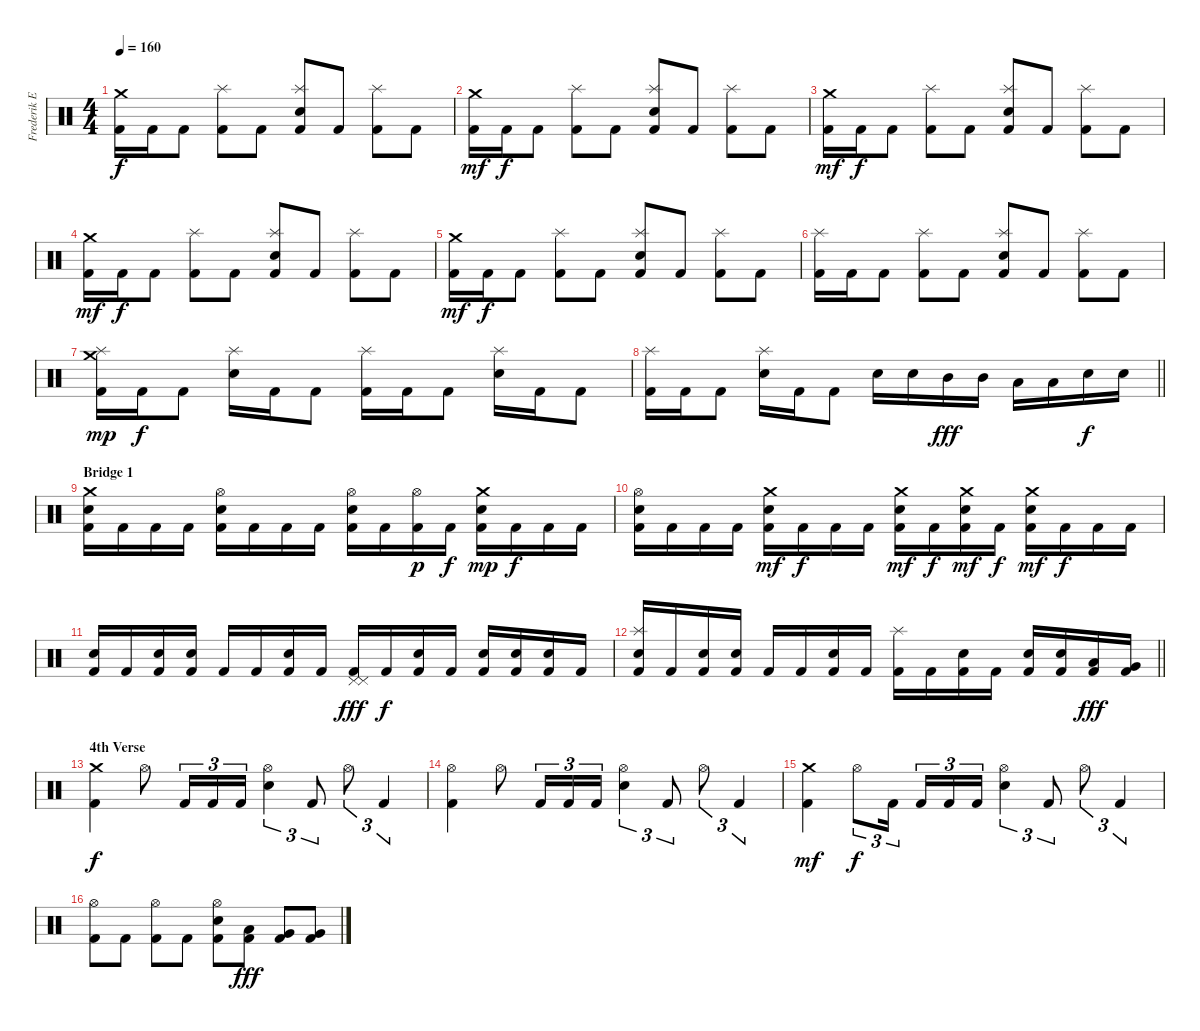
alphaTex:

\track ("Frederik Ehmke" "Frederik E") {instrument percussion}
\staff {score}
\articulation defaults
\ts (4 4)
\tempo 160
\clef neutral
\ks c
("Crash medium (hit)" "Kick (hit) 2").16{dy f} "Kick (hit) 2".16 "Kick (hit) 2".8 ("Splash (hit)" "Kick (hit) 2").8 "Kick (hit) 2".8 ("Splash (hit)" "Electric Snare (hit)" "Kick (hit) 2").8 "Kick (hit) 2".8 ("Splash (hit)" "Kick (hit) 2").8 "Kick (hit) 2".8 |
("Crash medium (hit)" "Kick (hit) 2").16{dy mf} "Kick (hit) 2".16{dy f} "Kick (hit) 2".8 ("Splash (hit)" "Kick (hit) 2").8 "Kick (hit) 2".8 ("Splash (hit)" "Electric Snare (hit)" "Kick (hit) 2").8 "Kick (hit) 2".8 ("Splash (hit)" "Kick (hit) 2").8 "Kick (hit) 2".8 |
("Crash medium (hit)" "Kick (hit) 2").16{dy mf} "Kick (hit) 2".16{dy f} "Kick (hit) 2".8 ("Splash (hit)" "Kick (hit) 2").8 "Kick (hit) 2".8 ("Splash (hit)" "Electric Snare (hit)" "Kick (hit) 2").8 "Kick (hit) 2".8 ("Splash (hit)" "Kick (hit) 2").8 "Kick (hit) 2".8 |
("Crash medium (hit)" "Kick (hit) 2").16{dy mf} "Kick (hit) 2".16{dy f} "Kick (hit) 2".8 ("Splash (hit)" "Kick (hit) 2").8 "Kick (hit) 2".8 ("Splash (hit)" "Electric Snare (hit)" "Kick (hit) 2").8 "Kick (hit) 2".8 ("Splash (hit)" "Kick (hit) 2").8 "Kick (hit) 2".8 |
("Crash medium (hit)" "Kick (hit) 2").16{dy mf} "Kick (hit) 2".16{dy f} "Kick (hit) 2".8 ("Splash (hit)" "Kick (hit) 2").8 "Kick (hit) 2".8 ("Splash (hit)" "Electric Snare (hit)" "Kick (hit) 2").8 "Kick (hit) 2".8 ("Splash (hit)" "Kick (hit) 2").8 "Kick (hit) 2".8 |
("Splash (hit)" "Kick (hit) 2").16 "Kick (hit) 2".16 "Kick (hit) 2".8 ("Splash (hit)" "Kick (hit) 2").8 "Kick (hit) 2".8 ("Splash (hit)" "Electric Snare (hit)" "Kick (hit) 2").8 "Kick (hit) 2".8 ("Splash (hit)" "Kick (hit) 2").8 "Kick (hit) 2".8 |
("Splash (hit)" "Crash medium (hit)" "Kick (hit) 2").16{dy mp} "Kick (hit) 2".16{dy f} "Kick (hit) 2".8 ("Splash (hit)" "Electric Snare (hit)").16 "Kick (hit) 2".16 "Kick (hit) 2".8 ("Splash (hit)" "Kick (hit) 2").16 "Kick (hit) 2".16 "Kick (hit) 2".8 ("Splash (hit)" "Electric Snare (hit)").16 "Kick (hit) 2".16 "Kick (hit) 2".8 |
\barLineRight lightlight
("Splash (hit)" "Kick (hit) 2").16 "Kick (hit) 2".16 "Kick (hit) 2".8 ("Splash (hit)" "Electric Snare (hit)").16 "Kick (hit) 2".16 "Kick (hit) 2".8 "Electric Snare (hit)".16 "Electric Snare (hit)".16 "Mid Tom (hit)".16{dy fff} "Mid Tom (hit)".16 "Low Tom (hit)".16 "Low Tom (hit)".16 "Electric Snare (hit)".16{dy f} "Electric Snare (hit)".16 |
\section ("" "Bridge 1")
("Crash medium (hit)" "Electric Snare (hit)" "Kick (hit) 2").16 "Kick (hit) 2".16 "Kick (hit) 2".16 "Kick (hit) 2".16 ("Hi-Hat (open)" "Electric Snare (hit)" "Kick (hit) 2").16 "Kick (hit) 2".16 "Kick (hit) 2".16 "Kick (hit) 2".16 ("Hi-Hat (open)" "Electric Snare (hit)" "Kick (hit) 2").16 "Kick (hit) 2".16 ("Hi-Hat (open)" "Kick (hit) 2").16{dy p} "Kick (hit) 2".16{dy f} ("Crash medium (hit)" "Electric Snare (hit)" "Kick (hit) 2").16{dy mp} "Kick (hit) 2".16{dy f} "Kick (hit) 2".16 "Kick (hit) 2".16 |
("Hi-Hat (open)" "Electric Snare (hit)" "Kick (hit) 2").16 "Kick (hit) 2".16 "Kick (hit) 2".16 "Kick (hit) 2".16 ("Crash medium (hit)" "Electric Snare (hit)" "Kick (hit) 2").16{dy mf} "Kick (hit) 2".16{dy f} "Kick (hit) 2".16 "Kick (hit) 2".16 ("Crash medium (hit)" "Electric Snare (hit)" "Kick (hit) 2").16{dy mf} "Kick (hit) 2".16{dy f} ("Crash medium (hit)" "Electric Snare (hit)" "Kick (hit) 2").16{dy mf} "Kick (hit) 2".16{dy f} ("Crash medium (hit)" "Electric Snare (hit)" "Kick (hit) 2").16{dy mf} "Kick (hit) 2".16{dy f} "Kick (hit) 2".16 "Kick (hit) 2".16 |
("Electric Snare (hit)" "Kick (hit) 2").16 "Kick (hit) 2".16 ("Electric Snare (hit)" "Kick (hit) 2").16 ("Electric Snare (hit)" "Kick (hit) 2").16 "Kick (hit) 2".16 "Kick (hit) 2".16 ("Electric Snare (hit)" "Kick (hit) 2").16 "Kick (hit) 2".16 ("Pedal Hi-Hat (hit)" "Pedal Hi-Hat (hit)" "Kick (hit) 2").16{dy fff} "Kick (hit) 2".16{dy f} ("Electric Snare (hit)" "Kick (hit) 2").16 "Kick (hit) 2".16 ("Electric Snare (hit)" "Kick (hit) 2").16 ("Electric Snare (hit)" "Kick (hit) 2").16 ("Electric Snare (hit)" "Kick (hit) 2").16 "Kick (hit) 2".16 |
\barLineRight lightlight
("Splash (hit)" "Electric Snare (hit)" "Kick (hit) 2").16 "Kick (hit) 2".16 ("Electric Snare (hit)" "Kick (hit) 2").16 ("Electric Snare (hit)" "Kick (hit) 2").16 "Kick (hit) 2".16 "Kick (hit) 2".16 ("Electric Snare (hit)" "Kick (hit) 2").16 "Kick (hit) 2".16 ("Splash (hit)" "Kick (hit) 2").16 "Kick (hit) 2".16 ("Electric Snare (hit)" "Kick (hit) 2").16 "Kick (hit) 2".16 ("Electric Snare (hit)" "Kick (hit) 2").16 ("Electric Snare (hit)" "Kick (hit) 2").16 ("Low Tom (hit)" "Kick (hit) 2").16{dy fff} ("Very Low Tom (hit)" "Kick (hit) 2").16 |
\section ("" "4th Verse")
("Crash medium (hit)" "Kick (hit) 2").4{dy f} "Hi-Hat (open)".8 "Kick (hit) 2".16{tu (3 2)} "Kick (hit) 2".16{tu (3 2)} "Kick (hit) 2".16{tu (3 2)} ("Hi-Hat (open)" "Electric Snare (hit)").4{tu (3 2)} "Kick (hit) 2".8{tu (3 2)} "Hi-Hat (open)".8{tu (3 2)} "Kick (hit) 2".4{tu (3 2)} |
("Hi-Hat (open)" "Kick (hit) 2").4 "Hi-Hat (open)".8 "Kick (hit) 2".16{tu (3 2)} "Kick (hit) 2".16{tu (3 2)} "Kick (hit) 2".16{tu (3 2)} ("Hi-Hat (open)" "Electric Snare (hit)").4{tu (3 2)} "Kick (hit) 2".8{tu (3 2)} "Hi-Hat (open)".8{tu (3 2)} "Kick (hit) 2".4{tu (3 2)} |
("Crash medium (hit)" "Kick (hit) 2").4{dy mf} "Hi-Hat (open)".8{tu (3 2) dy f} "Kick (hit) 2".16{tu (3 2) beam splitsecondary} "Kick (hit) 2".16{tu (3 2)} "Kick (hit) 2".16{tu (3 2)} "Kick (hit) 2".16{tu (3 2)} ("Hi-Hat (open)" "Electric Snare (hit)").4{tu (3 2)} "Kick (hit) 2".8{tu (3 2)} "Hi-Hat (open)".8{tu (3 2)} "Kick (hit) 2".4{tu (3 2)} |
("Hi-Hat (open)" "Kick (hit) 2").8 "Kick (hit) 2".8 ("Hi-Hat (open)" "Kick (hit) 2").8 "Kick (hit) 2".8 ("Hi-Hat (open)" "Electric Snare (hit)" "Kick (hit) 2").8 ("Low Tom (hit)" "Kick (hit) 2").8{dy fff} ("Very Low Tom (hit)" "Kick (hit) 2").8 ("Very Low Tom (hit)" "Kick (hit) 2").8
